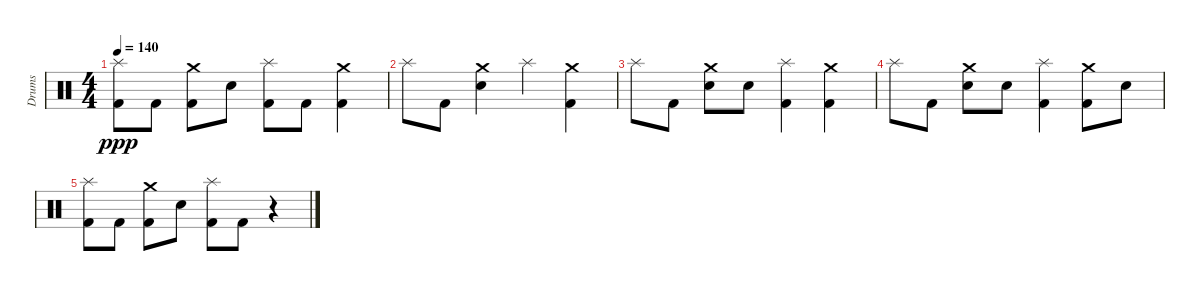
\track ("Drums" "Drums") {instrument percussion}
\staff {score}
\articulation defaults
\ts (4 4)
\tempo 140
\clef neutral
\ks c
("Splash (hit)" "Kick (hit) 2").8{dy ppp} "Kick (hit) 2".8 ("Crash medium (hit)" "Kick (hit) 2").8 "Snare (hit) 2".8 ("Splash (hit)" "Kick (hit) 2").8 "Kick (hit) 2".8 ("Crash medium (hit)" "Kick (hit) 2").4 |
"Splash (hit)".8 "Kick (hit) 2".8 ("Crash medium (hit)" "Snare (hit) 2").4 "Splash (hit)".4 ("Crash medium (hit)" "Kick (hit) 2").4 |
"Splash (hit)".8 "Kick (hit) 2".8 ("Crash medium (hit)" "Snare (hit) 2").8 "Snare (hit) 2".8 ("Splash (hit)" "Kick (hit) 2").4 ("Crash medium (hit)" "Kick (hit) 2").4 |
"Splash (hit)".8 "Kick (hit) 2".8 ("Crash medium (hit)" "Snare (hit) 2").8 "Snare (hit) 2".8 ("Splash (hit)" "Kick (hit) 2").4 ("Crash medium (hit)" "Kick (hit) 2").8 "Snare (hit) 2".8 |
("Splash (hit)" "Kick (hit) 2").8 "Kick (hit) 2".8 ("Crash medium (hit)" "Kick (hit) 2").8 "Snare (hit) 2".8 ("Splash (hit)" "Kick (hit) 2").8 "Kick (hit) 2".8 r.4
